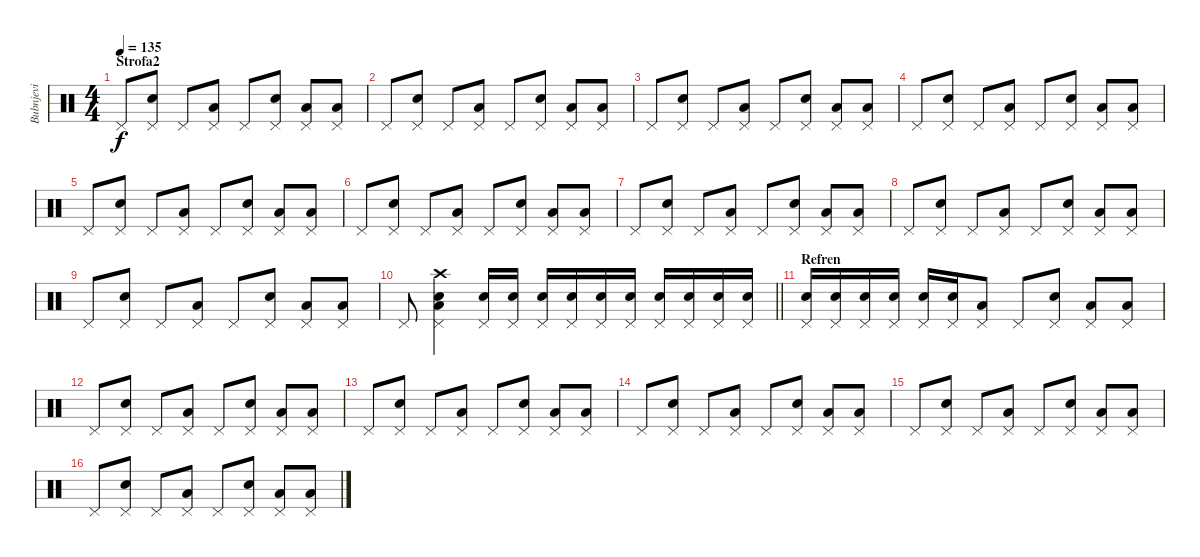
\track ("Bubnjevi" "Bubnjevi") {instrument percussion}
\staff {score}
\articulation defaults
\ts (4 4)
\section ("" "Strofa2")
\tempo 135
\clef neutral
\ks c "Pedal Hi-Hat (hit)".8{dy f}
("Pedal Hi-Hat (hit)" "Snare (hit) 2").8 "Pedal Hi-Hat (hit)".8 ("Pedal Hi-Hat (hit)" "Low Tom (hit)").8 "Pedal Hi-Hat (hit)".8 ("Pedal Hi-Hat (hit)" "Snare (hit) 2").8 ("Pedal Hi-Hat (hit)" "Low Tom (hit)").8 ("Pedal Hi-Hat (hit)" "Low Tom (hit)").8 |
"Pedal Hi-Hat (hit)".8 ("Pedal Hi-Hat (hit)" "Snare (hit) 2").8 "Pedal Hi-Hat (hit)".8 ("Pedal Hi-Hat (hit)" "Low Tom (hit)").8 "Pedal Hi-Hat (hit)".8 ("Pedal Hi-Hat (hit)" "Snare (hit) 2").8 ("Pedal Hi-Hat (hit)" "Low Tom (hit)").8 ("Pedal Hi-Hat (hit)" "Low Tom (hit)").8 |
"Pedal Hi-Hat (hit)".8 ("Pedal Hi-Hat (hit)" "Snare (hit) 2").8 "Pedal Hi-Hat (hit)".8 ("Pedal Hi-Hat (hit)" "Low Tom (hit)").8 "Pedal Hi-Hat (hit)".8 ("Pedal Hi-Hat (hit)" "Snare (hit) 2").8 ("Pedal Hi-Hat (hit)" "Low Tom (hit)").8 ("Pedal Hi-Hat (hit)" "Low Tom (hit)").8 |
"Pedal Hi-Hat (hit)".8 ("Pedal Hi-Hat (hit)" "Snare (hit) 2").8 "Pedal Hi-Hat (hit)".8 ("Pedal Hi-Hat (hit)" "Low Tom (hit)").8 "Pedal Hi-Hat (hit)".8 ("Pedal Hi-Hat (hit)" "Snare (hit) 2").8 ("Pedal Hi-Hat (hit)" "Low Tom (hit)").8 ("Pedal Hi-Hat (hit)" "Low Tom (hit)").8 |
"Pedal Hi-Hat (hit)".8 ("Pedal Hi-Hat (hit)" "Snare (hit) 2").8 "Pedal Hi-Hat (hit)".8 ("Pedal Hi-Hat (hit)" "Low Tom (hit)").8 "Pedal Hi-Hat (hit)".8 ("Pedal Hi-Hat (hit)" "Snare (hit) 2").8 ("Pedal Hi-Hat (hit)" "Low Tom (hit)").8 ("Pedal Hi-Hat (hit)" "Low Tom (hit)").8 |
"Pedal Hi-Hat (hit)".8 ("Pedal Hi-Hat (hit)" "Snare (hit) 2").8 "Pedal Hi-Hat (hit)".8 ("Pedal Hi-Hat (hit)" "Low Tom (hit)").8 "Pedal Hi-Hat (hit)".8 ("Pedal Hi-Hat (hit)" "Snare (hit) 2").8 ("Pedal Hi-Hat (hit)" "Low Tom (hit)").8 ("Pedal Hi-Hat (hit)" "Low Tom (hit)").8 |
"Pedal Hi-Hat (hit)".8 ("Pedal Hi-Hat (hit)" "Snare (hit) 2").8 "Pedal Hi-Hat (hit)".8 ("Pedal Hi-Hat (hit)" "Low Tom (hit)").8 "Pedal Hi-Hat (hit)".8 ("Pedal Hi-Hat (hit)" "Snare (hit) 2").8 ("Pedal Hi-Hat (hit)" "Low Tom (hit)").8 ("Pedal Hi-Hat (hit)" "Low Tom (hit)").8 |
"Pedal Hi-Hat (hit)".8 ("Pedal Hi-Hat (hit)" "Snare (hit) 2").8 "Pedal Hi-Hat (hit)".8 ("Pedal Hi-Hat (hit)" "Low Tom (hit)").8 "Pedal Hi-Hat (hit)".8 ("Pedal Hi-Hat (hit)" "Snare (hit) 2").8 ("Pedal Hi-Hat (hit)" "Low Tom (hit)").8 ("Pedal Hi-Hat (hit)" "Low Tom (hit)").8 |
"Pedal Hi-Hat (hit)".8 ("Pedal Hi-Hat (hit)" "Snare (hit) 2").8 "Pedal Hi-Hat (hit)".8 ("Pedal Hi-Hat (hit)" "Low Tom (hit)").8 "Pedal Hi-Hat (hit)".8 ("Pedal Hi-Hat (hit)" "Snare (hit) 2").8 ("Pedal Hi-Hat (hit)" "Low Tom (hit)").8 ("Pedal Hi-Hat (hit)" "Low Tom (hit)").8 |
\barLineRight lightlight "Pedal Hi-Hat (hit)".8
("Pedal Hi-Hat (hit)" "Low Tom (hit)" "Crash high (hit)" "Snare (hit) 2").4 ("Pedal Hi-Hat (hit)" "Snare (hit) 2").16 ("Pedal Hi-Hat (hit)" "Snare (hit) 2").16 ("Pedal Hi-Hat (hit)" "Snare (hit) 2").16 ("Pedal Hi-Hat (hit)" "Snare (hit) 2").16 ("Pedal Hi-Hat (hit)" "Snare (hit) 2").16 ("Pedal Hi-Hat (hit)" "Snare (hit) 2").16 ("Pedal Hi-Hat (hit)" "Snare (hit) 2").16 ("Pedal Hi-Hat (hit)" "Snare (hit) 2").16 ("Pedal Hi-Hat (hit)" "Snare (hit) 2").16 ("Pedal Hi-Hat (hit)" "Snare (hit) 2").16 |
\section ("" "Refren")
("Pedal Hi-Hat (hit)" "Snare (hit) 2").16 ("Pedal Hi-Hat (hit)" "Snare (hit) 2").16 ("Pedal Hi-Hat (hit)" "Snare (hit) 2").16 ("Pedal Hi-Hat (hit)" "Snare (hit) 2").16 ("Pedal Hi-Hat (hit)" "Snare (hit) 2").16 ("Pedal Hi-Hat (hit)" "Snare (hit) 2").16 ("Pedal Hi-Hat (hit)" "Low Tom (hit)").8 "Pedal Hi-Hat (hit)".8 ("Pedal Hi-Hat (hit)" "Snare (hit) 2").8 ("Pedal Hi-Hat (hit)" "Low Tom (hit)").8 ("Pedal Hi-Hat (hit)" "Low Tom (hit)").8 |
"Pedal Hi-Hat (hit)".8 ("Pedal Hi-Hat (hit)" "Snare (hit) 2").8 "Pedal Hi-Hat (hit)".8 ("Pedal Hi-Hat (hit)" "Low Tom (hit)").8 "Pedal Hi-Hat (hit)".8 ("Pedal Hi-Hat (hit)" "Snare (hit) 2").8 ("Pedal Hi-Hat (hit)" "Low Tom (hit)").8 ("Pedal Hi-Hat (hit)" "Low Tom (hit)").8 |
"Pedal Hi-Hat (hit)".8 ("Pedal Hi-Hat (hit)" "Snare (hit) 2").8 "Pedal Hi-Hat (hit)".8 ("Pedal Hi-Hat (hit)" "Low Tom (hit)").8 "Pedal Hi-Hat (hit)".8 ("Pedal Hi-Hat (hit)" "Snare (hit) 2").8 ("Pedal Hi-Hat (hit)" "Low Tom (hit)").8 ("Pedal Hi-Hat (hit)" "Low Tom (hit)").8 |
"Pedal Hi-Hat (hit)".8 ("Pedal Hi-Hat (hit)" "Snare (hit) 2").8 "Pedal Hi-Hat (hit)".8 ("Pedal Hi-Hat (hit)" "Low Tom (hit)").8 "Pedal Hi-Hat (hit)".8 ("Pedal Hi-Hat (hit)" "Snare (hit) 2").8 ("Pedal Hi-Hat (hit)" "Low Tom (hit)").8 ("Pedal Hi-Hat (hit)" "Low Tom (hit)").8 |
"Pedal Hi-Hat (hit)".8 ("Pedal Hi-Hat (hit)" "Snare (hit) 2").8 "Pedal Hi-Hat (hit)".8 ("Pedal Hi-Hat (hit)" "Low Tom (hit)").8 "Pedal Hi-Hat (hit)".8 ("Pedal Hi-Hat (hit)" "Snare (hit) 2").8 ("Pedal Hi-Hat (hit)" "Low Tom (hit)").8 ("Pedal Hi-Hat (hit)" "Low Tom (hit)").8 |
"Pedal Hi-Hat (hit)".8 ("Pedal Hi-Hat (hit)" "Snare (hit) 2").8 "Pedal Hi-Hat (hit)".8 ("Pedal Hi-Hat (hit)" "Low Tom (hit)").8 "Pedal Hi-Hat (hit)".8 ("Pedal Hi-Hat (hit)" "Snare (hit) 2").8 ("Pedal Hi-Hat (hit)" "Low Tom (hit)").8 ("Pedal Hi-Hat (hit)" "Low Tom (hit)").8
